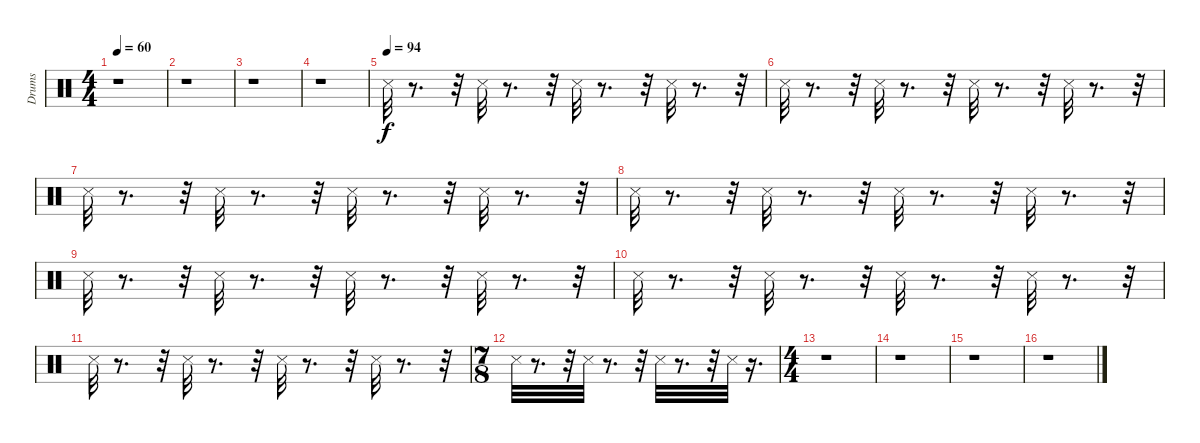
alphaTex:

\track ("Drums" "Drums") {instrument percussion}
\staff {score}
\articulation defaults
\ts (4 4)
\tempo 60
\clef neutral
\ks c
r.1{dy f} |
r.1 |
r.1 |
r.1 |
\tempo (94)
"Snare (side stick) 3".32 r.8{d} r.32 "Snare (side stick) 3".32 r.8{d} r.32 "Snare (side stick) 3".32 r.8{d} r.32 "Snare (side stick) 3".32 r.8{d} r.32 |
"Snare (side stick) 3".32 r.8{d} r.32 "Snare (side stick) 3".32 r.8{d} r.32 "Snare (side stick) 3".32 r.8{d} r.32 "Snare (side stick) 3".32 r.8{d} r.32 |
"Snare (side stick) 3".32 r.8{d} r.32 "Snare (side stick) 3".32 r.8{d} r.32 "Snare (side stick) 3".32 r.8{d} r.32 "Snare (side stick) 3".32 r.8{d} r.32 |
"Snare (side stick) 3".32 r.8{d} r.32 "Snare (side stick) 3".32 r.8{d} r.32 "Snare (side stick) 3".32 r.8{d} r.32 "Snare (side stick) 3".32 r.8{d} r.32 |
"Snare (side stick) 3".32 r.8{d} r.32 "Snare (side stick) 3".32 r.8{d} r.32 "Snare (side stick) 3".32 r.8{d} r.32 "Snare (side stick) 3".32 r.8{d} r.32 |
"Snare (side stick) 3".32 r.8{d} r.32 "Snare (side stick) 3".32 r.8{d} r.32 "Snare (side stick) 3".32 r.8{d} r.32 "Snare (side stick) 3".32 r.8{d} r.32 |
"Snare (side stick) 3".32 r.8{d} r.32 "Snare (side stick) 3".32 r.8{d} r.32 "Snare (side stick) 3".32 r.8{d} r.32 "Snare (side stick) 3".32 r.8{d} r.32 |
\ts (7 8)
"Snare (side stick) 3".32 r.8{d} r.32 "Snare (side stick) 3".32 r.8{d} r.32 "Snare (side stick) 3".32 r.8{d} r.32 "Snare (side stick) 3".32 r.16{d} |
\ts (4 4)
r.1 |
r.1 |
r.1 |
r.1
